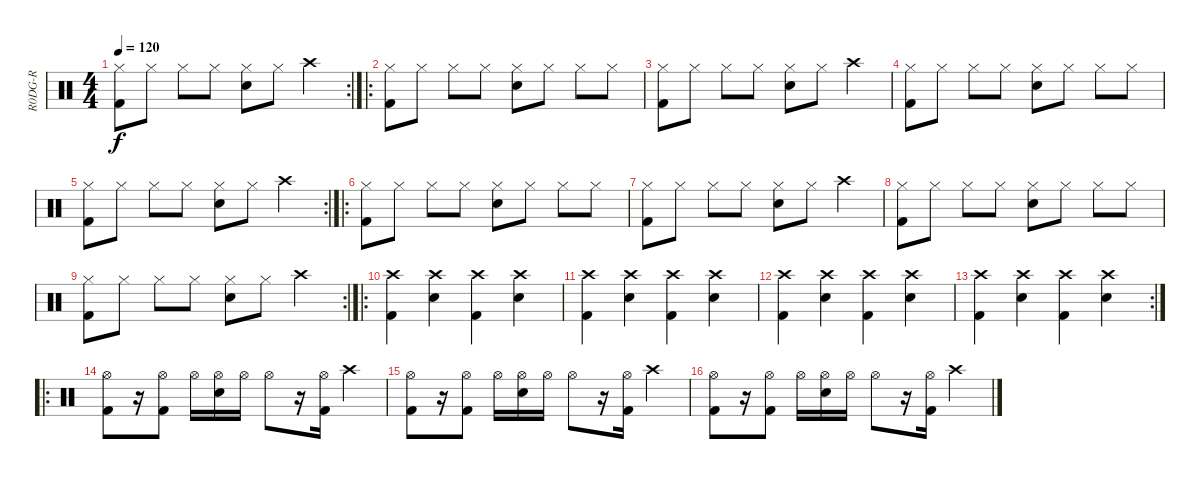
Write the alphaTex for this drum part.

\track ("R0DG-R" "R0DG-R") {instrument percussion}
\staff {score}
\articulation defaults
\rc 2
\ts (4 4)
\tempo 120
\clef neutral
\ks c
("Hi-Hat (closed)" "Kick (hit) 2").8{dy f} "Hi-Hat (closed)".8 "Hi-Hat (closed)".8 "Hi-Hat (closed)".8 ("Hi-Hat (closed)" "Electric Snare (hit)").8 "Hi-Hat (closed)".8 "Crash high (hit)".4 |
\ro
("Hi-Hat (closed)" "Kick (hit) 2").8 "Hi-Hat (closed)".8 "Hi-Hat (closed)".8 "Hi-Hat (closed)".8 ("Hi-Hat (closed)" "Electric Snare (hit)").8 "Hi-Hat (closed)".8 "Hi-Hat (closed)".8 "Hi-Hat (closed)".8 |
("Hi-Hat (closed)" "Kick (hit) 2").8 "Hi-Hat (closed)".8 "Hi-Hat (closed)".8 "Hi-Hat (closed)".8 ("Hi-Hat (closed)" "Electric Snare (hit)").8 "Hi-Hat (closed)".8 "Crash high (hit)".4 |
("Hi-Hat (closed)" "Kick (hit) 2").8 "Hi-Hat (closed)".8 "Hi-Hat (closed)".8 "Hi-Hat (closed)".8 ("Hi-Hat (closed)" "Electric Snare (hit)").8 "Hi-Hat (closed)".8 "Hi-Hat (closed)".8 "Hi-Hat (closed)".8 |
\rc 2
("Hi-Hat (closed)" "Kick (hit) 2").8 "Hi-Hat (closed)".8 "Hi-Hat (closed)".8 "Hi-Hat (closed)".8 ("Hi-Hat (closed)" "Electric Snare (hit)").8 "Hi-Hat (closed)".8 "Crash high (hit)".4 |
\ro
("Hi-Hat (closed)" "Kick (hit) 2").8 "Hi-Hat (closed)".8 "Hi-Hat (closed)".8 "Hi-Hat (closed)".8 ("Hi-Hat (closed)" "Electric Snare (hit)").8 "Hi-Hat (closed)".8 "Hi-Hat (closed)".8 "Hi-Hat (closed)".8 |
("Hi-Hat (closed)" "Kick (hit) 2").8 "Hi-Hat (closed)".8 "Hi-Hat (closed)".8 "Hi-Hat (closed)".8 ("Hi-Hat (closed)" "Electric Snare (hit)").8 "Hi-Hat (closed)".8 "Crash high (hit)".4 |
("Hi-Hat (closed)" "Kick (hit) 2").8 "Hi-Hat (closed)".8 "Hi-Hat (closed)".8 "Hi-Hat (closed)".8 ("Hi-Hat (closed)" "Electric Snare (hit)").8 "Hi-Hat (closed)".8 "Hi-Hat (closed)".8 "Hi-Hat (closed)".8 |
\rc 2
("Hi-Hat (closed)" "Kick (hit) 2").8 "Hi-Hat (closed)".8 "Hi-Hat (closed)".8 "Hi-Hat (closed)".8 ("Hi-Hat (closed)" "Electric Snare (hit)").8 "Hi-Hat (closed)".8 "Crash high (hit)".4 |
\ro
("Crash high (hit)" "Kick (hit) 2").4 ("Crash high (hit)" "Electric Snare (hit)").4 ("Crash high (hit)" "Kick (hit) 2").4 ("Crash high (hit)" "Electric Snare (hit)").4 |
("Crash high (hit)" "Kick (hit) 2").4 ("Crash high (hit)" "Electric Snare (hit)").4 ("Crash high (hit)" "Kick (hit) 2").4 ("Crash high (hit)" "Electric Snare (hit)").4 |
("Crash high (hit)" "Kick (hit) 2").4 ("Crash high (hit)" "Electric Snare (hit)").4 ("Crash high (hit)" "Kick (hit) 2").4 ("Crash high (hit)" "Electric Snare (hit)").4 |
\rc 2
("Crash high (hit)" "Kick (hit) 2").4 ("Crash high (hit)" "Electric Snare (hit)").4 ("Crash high (hit)" "Kick (hit) 2").4 ("Crash high (hit)" "Electric Snare (hit)").4 |
\ro
("Hi-Hat (open)" "Kick (hit) 2").8 r.16 ("Hi-Hat (open)" "Kick (hit) 2").8 "Hi-Hat (open)".16 ("Hi-Hat (open)" "Electric Snare (hit)").16 "Hi-Hat (open)".16 "Hi-Hat (open)".8 r.16 ("Hi-Hat (open)" "Kick (hit) 2").16 "Crash high (hit)".4 |
("Hi-Hat (open)" "Kick (hit) 2").8 r.16 ("Hi-Hat (open)" "Kick (hit) 2").8 "Hi-Hat (open)".16 ("Hi-Hat (open)" "Electric Snare (hit)").16 "Hi-Hat (open)".16 "Hi-Hat (open)".8 r.16 ("Hi-Hat (open)" "Kick (hit) 2").16 "Crash high (hit)".4 |
("Hi-Hat (open)" "Kick (hit) 2").8 r.16 ("Hi-Hat (open)" "Kick (hit) 2").8 "Hi-Hat (open)".16 ("Hi-Hat (open)" "Electric Snare (hit)").16 "Hi-Hat (open)".16 "Hi-Hat (open)".8 r.16 ("Hi-Hat (open)" "Kick (hit) 2").16 "Crash high (hit)".4
